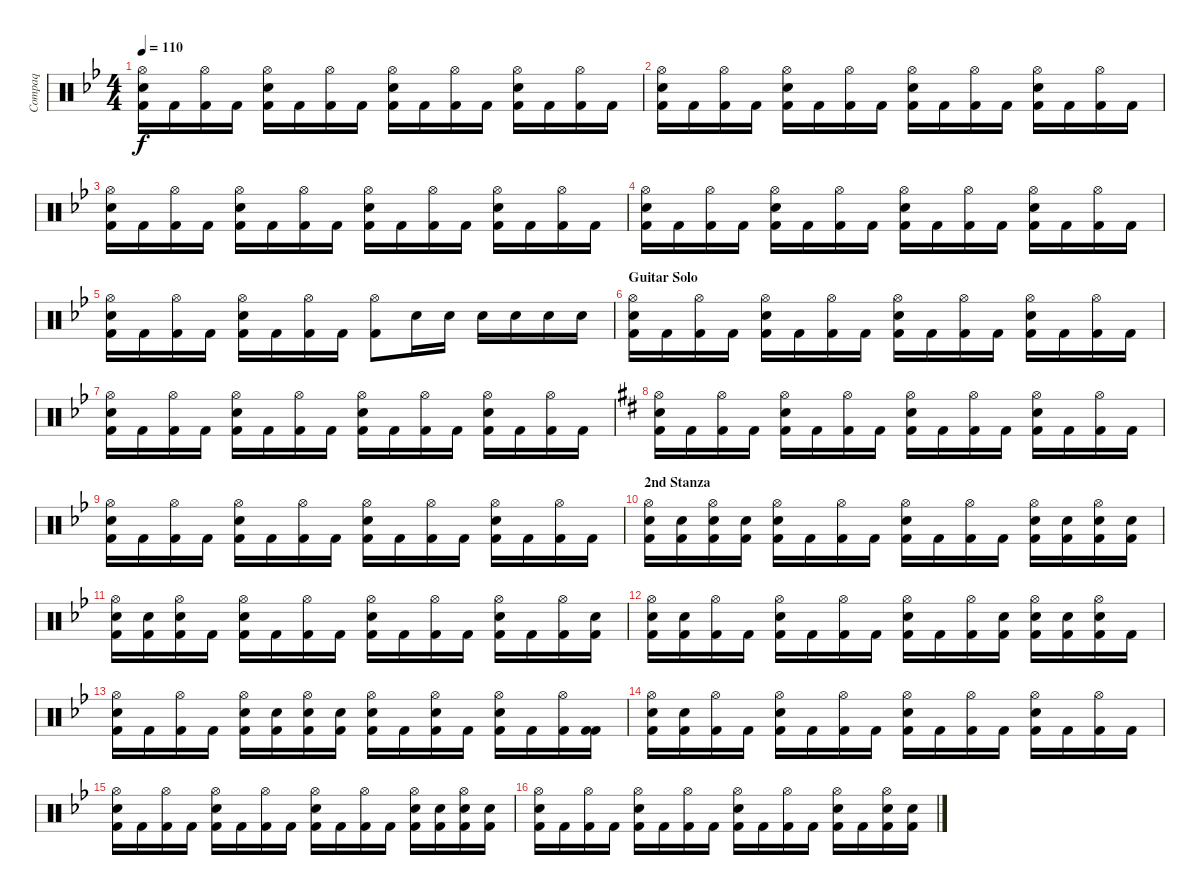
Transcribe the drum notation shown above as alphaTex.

\track ("Compaq" "Compaq") {instrument percussion}
\staff {score}
\articulation defaults
\ts (4 4)
\tempo 110
\clef neutral
\ks bb
("Electric Snare (hit)" "Kick (hit) 2" "Hi-Hat (open)").16{dy f} "Kick (hit) 2".16 ("Kick (hit) 2" "Hi-Hat (open)").16 "Kick (hit) 2".16 ("Electric Snare (hit)" "Kick (hit) 2" "Hi-Hat (open)").16 "Kick (hit) 2".16 ("Kick (hit) 2" "Hi-Hat (open)").16 "Kick (hit) 2".16 ("Electric Snare (hit)" "Kick (hit) 2" "Hi-Hat (open)").16 "Kick (hit) 2".16 ("Kick (hit) 2" "Hi-Hat (open)").16 "Kick (hit) 2".16 ("Electric Snare (hit)" "Kick (hit) 2" "Hi-Hat (open)").16 "Kick (hit) 2".16 ("Kick (hit) 2" "Hi-Hat (open)").16 "Kick (hit) 2".16 |
("Electric Snare (hit)" "Kick (hit) 2" "Hi-Hat (open)").16 "Kick (hit) 2".16 ("Kick (hit) 2" "Hi-Hat (open)").16 "Kick (hit) 2".16 ("Electric Snare (hit)" "Kick (hit) 2" "Hi-Hat (open)").16 "Kick (hit) 2".16 ("Kick (hit) 2" "Hi-Hat (open)").16 "Kick (hit) 2".16 ("Electric Snare (hit)" "Kick (hit) 2" "Hi-Hat (open)").16 "Kick (hit) 2".16 ("Kick (hit) 2" "Hi-Hat (open)").16 "Kick (hit) 2".16 ("Electric Snare (hit)" "Kick (hit) 2" "Hi-Hat (open)").16 "Kick (hit) 2".16 ("Kick (hit) 2" "Hi-Hat (open)").16 "Kick (hit) 2".16 |
("Electric Snare (hit)" "Kick (hit) 2" "Hi-Hat (open)").16 "Kick (hit) 2".16 ("Kick (hit) 2" "Hi-Hat (open)").16 "Kick (hit) 2".16 ("Electric Snare (hit)" "Kick (hit) 2" "Hi-Hat (open)").16 "Kick (hit) 2".16 ("Kick (hit) 2" "Hi-Hat (open)").16 "Kick (hit) 2".16 ("Electric Snare (hit)" "Kick (hit) 2" "Hi-Hat (open)").16 "Kick (hit) 2".16 ("Kick (hit) 2" "Hi-Hat (open)").16 "Kick (hit) 2".16 ("Electric Snare (hit)" "Kick (hit) 2" "Hi-Hat (open)").16 "Kick (hit) 2".16 ("Kick (hit) 2" "Hi-Hat (open)").16 "Kick (hit) 2".16 |
("Electric Snare (hit)" "Kick (hit) 2" "Hi-Hat (open)").16 "Kick (hit) 2".16 ("Kick (hit) 2" "Hi-Hat (open)").16 "Kick (hit) 2".16 ("Electric Snare (hit)" "Kick (hit) 2" "Hi-Hat (open)").16 "Kick (hit) 2".16 ("Kick (hit) 2" "Hi-Hat (open)").16 "Kick (hit) 2".16 ("Electric Snare (hit)" "Kick (hit) 2" "Hi-Hat (open)").16 "Kick (hit) 2".16 ("Kick (hit) 2" "Hi-Hat (open)").16 "Kick (hit) 2".16 ("Electric Snare (hit)" "Kick (hit) 2" "Hi-Hat (open)").16 "Kick (hit) 2".16 ("Kick (hit) 2" "Hi-Hat (open)").16 "Kick (hit) 2".16 |
("Electric Snare (hit)" "Kick (hit) 2" "Hi-Hat (open)").16 "Kick (hit) 2".16 ("Kick (hit) 2" "Hi-Hat (open)").16 "Kick (hit) 2".16 ("Electric Snare (hit)" "Kick (hit) 2" "Hi-Hat (open)").16 "Kick (hit) 2".16 ("Kick (hit) 2" "Hi-Hat (open)").16 "Kick (hit) 2".16 ("Hi-Hat (open)" "Kick (hit) 2").8 "Electric Snare (hit)".16 "Electric Snare (hit)".16 "Electric Snare (hit)".16 "Electric Snare (hit)".16 "Electric Snare (hit)".16 "Electric Snare (hit)".16 |
\section ("" "Guitar Solo")
("Electric Snare (hit)" "Kick (hit) 2" "Hi-Hat (open)").16 "Kick (hit) 2".16 ("Kick (hit) 2" "Hi-Hat (open)").16 "Kick (hit) 2".16 ("Electric Snare (hit)" "Kick (hit) 2" "Hi-Hat (open)").16 "Kick (hit) 2".16 ("Kick (hit) 2" "Hi-Hat (open)").16 "Kick (hit) 2".16 ("Electric Snare (hit)" "Kick (hit) 2" "Hi-Hat (open)").16 "Kick (hit) 2".16 ("Kick (hit) 2" "Hi-Hat (open)").16 "Kick (hit) 2".16 ("Electric Snare (hit)" "Kick (hit) 2" "Hi-Hat (open)").16 "Kick (hit) 2".16 ("Kick (hit) 2" "Hi-Hat (open)").16 "Kick (hit) 2".16 |
("Electric Snare (hit)" "Kick (hit) 2" "Hi-Hat (open)").16 "Kick (hit) 2".16 ("Kick (hit) 2" "Hi-Hat (open)").16 "Kick (hit) 2".16 ("Electric Snare (hit)" "Kick (hit) 2" "Hi-Hat (open)").16 "Kick (hit) 2".16 ("Kick (hit) 2" "Hi-Hat (open)").16 "Kick (hit) 2".16 ("Electric Snare (hit)" "Kick (hit) 2" "Hi-Hat (open)").16 "Kick (hit) 2".16 ("Kick (hit) 2" "Hi-Hat (open)").16 "Kick (hit) 2".16 ("Electric Snare (hit)" "Kick (hit) 2" "Hi-Hat (open)").16 "Kick (hit) 2".16 ("Kick (hit) 2" "Hi-Hat (open)").16 "Kick (hit) 2".16 |
\ks bminor
("Electric Snare (hit)" "Kick (hit) 2" "Hi-Hat (open)").16 "Kick (hit) 2".16 ("Kick (hit) 2" "Hi-Hat (open)").16 "Kick (hit) 2".16 ("Electric Snare (hit)" "Kick (hit) 2" "Hi-Hat (open)").16 "Kick (hit) 2".16 ("Kick (hit) 2" "Hi-Hat (open)").16 "Kick (hit) 2".16 ("Electric Snare (hit)" "Kick (hit) 2" "Hi-Hat (open)").16 "Kick (hit) 2".16 ("Kick (hit) 2" "Hi-Hat (open)").16 "Kick (hit) 2".16 ("Electric Snare (hit)" "Kick (hit) 2" "Hi-Hat (open)").16 "Kick (hit) 2".16 ("Kick (hit) 2" "Hi-Hat (open)").16 "Kick (hit) 2".16 |
\ks bb
("Electric Snare (hit)" "Kick (hit) 2" "Hi-Hat (open)").16 "Kick (hit) 2".16 ("Kick (hit) 2" "Hi-Hat (open)").16 "Kick (hit) 2".16 ("Electric Snare (hit)" "Kick (hit) 2" "Hi-Hat (open)").16 "Kick (hit) 2".16 ("Kick (hit) 2" "Hi-Hat (open)").16 "Kick (hit) 2".16 ("Electric Snare (hit)" "Kick (hit) 2" "Hi-Hat (open)").16 "Kick (hit) 2".16 ("Kick (hit) 2" "Hi-Hat (open)").16 "Kick (hit) 2".16 ("Electric Snare (hit)" "Kick (hit) 2" "Hi-Hat (open)").16 "Kick (hit) 2".16 ("Kick (hit) 2" "Hi-Hat (open)").16 "Kick (hit) 2".16 |
\section ("" "2nd Stanza")
("Electric Snare (hit)" "Kick (hit) 2" "Hi-Hat (open)").16 ("Kick (hit) 2" "Electric Snare (hit)").16 ("Kick (hit) 2" "Hi-Hat (open)" "Electric Snare (hit)").16 ("Kick (hit) 2" "Electric Snare (hit)").16 ("Electric Snare (hit)" "Kick (hit) 2" "Hi-Hat (open)").16 "Kick (hit) 2".16 ("Kick (hit) 2" "Hi-Hat (open)").16 "Kick (hit) 2".16 ("Electric Snare (hit)" "Kick (hit) 2" "Hi-Hat (open)").16 "Kick (hit) 2".16 ("Kick (hit) 2" "Hi-Hat (open)").16 "Kick (hit) 2".16 ("Electric Snare (hit)" "Kick (hit) 2" "Hi-Hat (open)").16 ("Kick (hit) 2" "Electric Snare (hit)").16 ("Kick (hit) 2" "Hi-Hat (open)" "Electric Snare (hit)").16 ("Kick (hit) 2" "Electric Snare (hit)").16 |
("Electric Snare (hit)" "Kick (hit) 2" "Hi-Hat (open)").16 ("Kick (hit) 2" "Electric Snare (hit)").16 ("Kick (hit) 2" "Hi-Hat (open)" "Electric Snare (hit)").16 "Kick (hit) 2".16 ("Electric Snare (hit)" "Kick (hit) 2" "Hi-Hat (open)").16 "Kick (hit) 2".16 ("Kick (hit) 2" "Hi-Hat (open)").16 "Kick (hit) 2".16 ("Electric Snare (hit)" "Kick (hit) 2" "Hi-Hat (open)").16 "Kick (hit) 2".16 ("Kick (hit) 2" "Hi-Hat (open)").16 "Kick (hit) 2".16 ("Electric Snare (hit)" "Kick (hit) 2" "Hi-Hat (open)").16 "Kick (hit) 2".16 ("Kick (hit) 2" "Hi-Hat (open)").16 ("Kick (hit) 2" "Electric Snare (hit)").16 |
("Electric Snare (hit)" "Kick (hit) 2" "Hi-Hat (open)").16 ("Kick (hit) 2" "Electric Snare (hit)").16 ("Kick (hit) 2" "Hi-Hat (open)").16 "Kick (hit) 2".16 ("Electric Snare (hit)" "Kick (hit) 2" "Hi-Hat (open)").16 "Kick (hit) 2".16 ("Kick (hit) 2" "Hi-Hat (open)").16 "Kick (hit) 2".16 ("Electric Snare (hit)" "Kick (hit) 2" "Hi-Hat (open)").16 "Kick (hit) 2".16 ("Kick (hit) 2" "Hi-Hat (open)").16 ("Kick (hit) 2" "Electric Snare (hit)").16 ("Electric Snare (hit)" "Kick (hit) 2" "Hi-Hat (open)").16 ("Kick (hit) 2" "Electric Snare (hit)").16 ("Kick (hit) 2" "Hi-Hat (open)" "Electric Snare (hit)").16 "Kick (hit) 2".16 |
("Electric Snare (hit)" "Kick (hit) 2" "Hi-Hat (open)").16 "Kick (hit) 2".16 ("Kick (hit) 2" "Hi-Hat (open)").16 "Kick (hit) 2".16 ("Electric Snare (hit)" "Kick (hit) 2" "Hi-Hat (open)").16 ("Kick (hit) 2" "Electric Snare (hit)").16 ("Kick (hit) 2" "Hi-Hat (open)" "Electric Snare (hit)").16 ("Kick (hit) 2" "Electric Snare (hit)").16 ("Electric Snare (hit)" "Kick (hit) 2" "Hi-Hat (open)").16 "Kick (hit) 2".16 ("Kick (hit) 2" "Hi-Hat (open)" "Electric Snare (hit)").16 "Kick (hit) 2".16 ("Electric Snare (hit)" "Kick (hit) 2" "Hi-Hat (open)").16 "Kick (hit) 2".16 ("Kick (hit) 2" "Hi-Hat (open)").16 ("Kick (hit) 2" "Kick (hit) 2").16 |
("Electric Snare (hit)" "Kick (hit) 2" "Hi-Hat (open)").16 ("Kick (hit) 2" "Electric Snare (hit)").16 ("Kick (hit) 2" "Hi-Hat (open)").16 "Kick (hit) 2".16 ("Electric Snare (hit)" "Kick (hit) 2" "Hi-Hat (open)").16 "Kick (hit) 2".16 ("Kick (hit) 2" "Hi-Hat (open)").16 "Kick (hit) 2".16 ("Electric Snare (hit)" "Kick (hit) 2" "Hi-Hat (open)").16 "Kick (hit) 2".16 ("Kick (hit) 2" "Hi-Hat (open)").16 "Kick (hit) 2".16 ("Electric Snare (hit)" "Kick (hit) 2" "Hi-Hat (open)").16 "Kick (hit) 2".16 ("Kick (hit) 2" "Hi-Hat (open)").16 "Kick (hit) 2".16 |
("Electric Snare (hit)" "Kick (hit) 2" "Hi-Hat (open)").16 "Kick (hit) 2".16 ("Kick (hit) 2" "Hi-Hat (open)").16 "Kick (hit) 2".16 ("Electric Snare (hit)" "Kick (hit) 2" "Hi-Hat (open)").16 "Kick (hit) 2".16 ("Kick (hit) 2" "Hi-Hat (open)").16 "Kick (hit) 2".16 ("Electric Snare (hit)" "Kick (hit) 2" "Hi-Hat (open)").16 "Kick (hit) 2".16 ("Kick (hit) 2" "Hi-Hat (open)").16 "Kick (hit) 2".16 ("Electric Snare (hit)" "Kick (hit) 2" "Hi-Hat (open)").16 ("Kick (hit) 2" "Electric Snare (hit)").16 ("Kick (hit) 2" "Hi-Hat (open)" "Electric Snare (hit)").16 ("Kick (hit) 2" "Electric Snare (hit)").16 |
("Electric Snare (hit)" "Kick (hit) 2" "Hi-Hat (open)").16 "Kick (hit) 2".16 ("Kick (hit) 2" "Hi-Hat (open)").16 "Kick (hit) 2".16 ("Electric Snare (hit)" "Kick (hit) 2" "Hi-Hat (open)").16 "Kick (hit) 2".16 ("Kick (hit) 2" "Hi-Hat (open)").16 "Kick (hit) 2".16 ("Electric Snare (hit)" "Kick (hit) 2" "Hi-Hat (open)").16 "Kick (hit) 2".16 ("Kick (hit) 2" "Hi-Hat (open)").16 "Kick (hit) 2".16 ("Electric Snare (hit)" "Kick (hit) 2" "Hi-Hat (open)").16 "Kick (hit) 2".16 ("Kick (hit) 2" "Hi-Hat (open)" "Electric Snare (hit)").16 ("Kick (hit) 2" "Electric Snare (hit)").16
